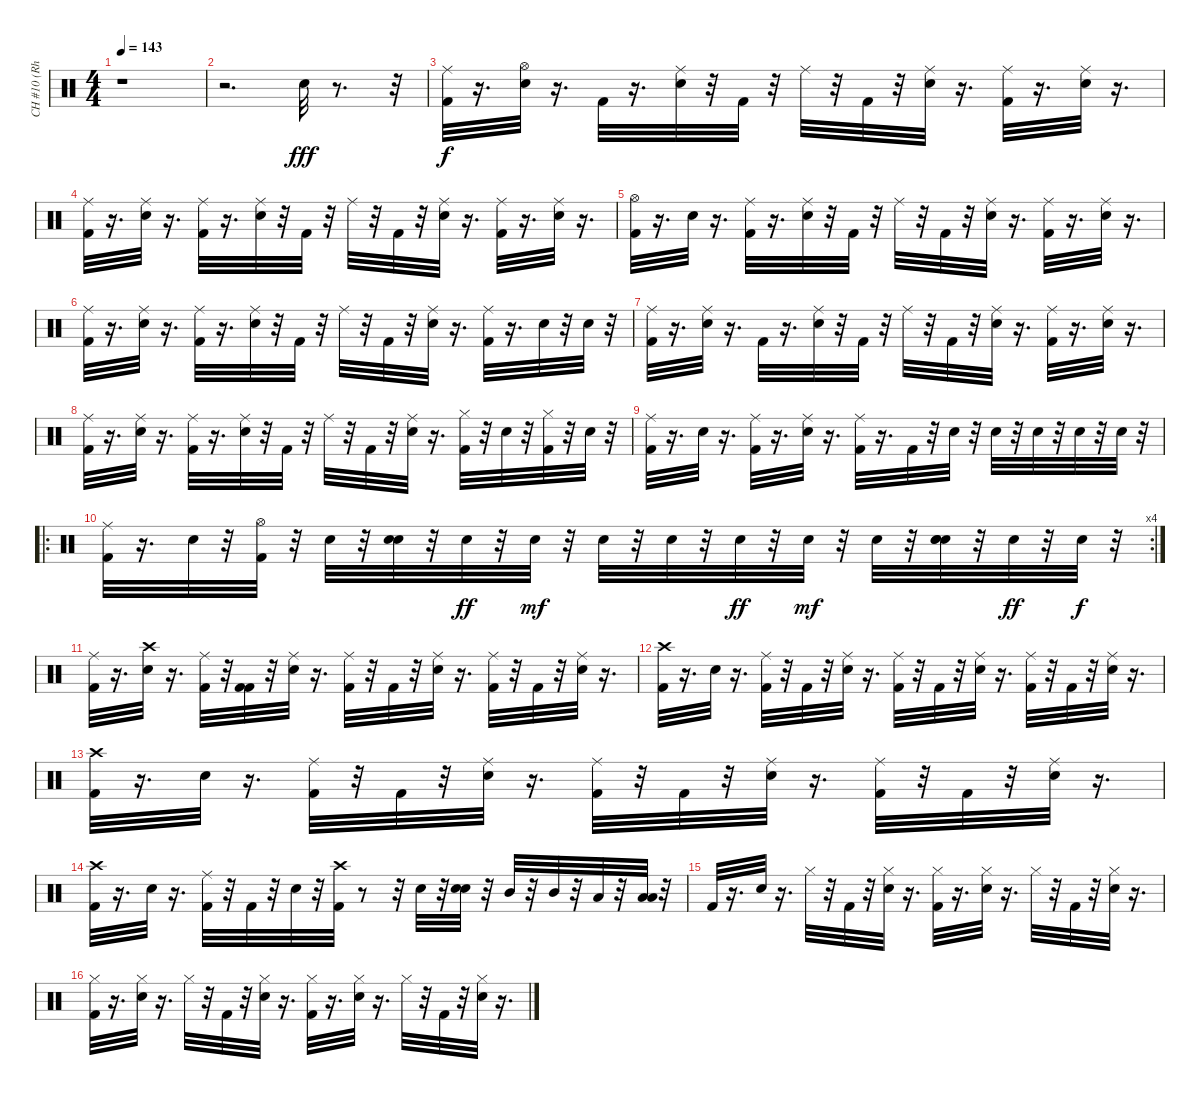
\track ("CH #10 (Rhythm channel)" "CH #10 (Rh") {instrument percussion}
\staff {score}
\articulation defaults
\ts (4 4)
\tempo 143
\clef neutral
\ks c
r.1{dy fff} |
r.2{d} "Electric Snare (hit)".32 r.8{d} r.32 |
("Kick (hit) 2" "Ride (middle)").32{dy f} r.16{d} ("Electric Snare (hit)" "Hi-Hat (open)").32 r.16{d} "Kick (hit) 2".32 r.16{d} ("Electric Snare (hit)" "Ride (middle)").32 r.32 "Kick (hit) 2".32 r.32 "Ride (middle)".32 r.32 "Kick (hit) 2".32 r.32 ("Electric Snare (hit)" "Ride (middle)").32 r.16{d} ("Kick (hit) 2" "Ride (middle)").32 r.16{d} ("Electric Snare (hit)" "Ride (middle)").32 r.16{d} |
("Kick (hit) 2" "Ride (middle)").32 r.16{d} ("Electric Snare (hit)" "Ride (middle)").32 r.16{d} ("Kick (hit) 2" "Ride (middle)").32 r.16{d} ("Electric Snare (hit)" "Ride (middle)").32 r.32 "Kick (hit) 2".32 r.32 "Ride (middle)".32 r.32 "Kick (hit) 2".32 r.32 ("Electric Snare (hit)" "Ride (middle)").32 r.16{d} ("Kick (hit) 2" "Ride (middle)").32 r.16{d} ("Electric Snare (hit)" "Ride (middle)").32 r.16{d} |
("Hi-Hat (open)" "Kick (hit) 2").32 r.16{d} "Electric Snare (hit)".32 r.16{d} ("Kick (hit) 2" "Ride (middle)").32 r.16{d} ("Electric Snare (hit)" "Ride (middle)").32 r.32 "Kick (hit) 2".32 r.32 "Ride (middle)".32 r.32 "Kick (hit) 2".32 r.32 ("Electric Snare (hit)" "Ride (middle)").32 r.16{d} ("Kick (hit) 2" "Ride (middle)").32 r.16{d} ("Electric Snare (hit)" "Ride (middle)").32 r.16{d} |
("Kick (hit) 2" "Ride (middle)").32 r.16{d} ("Electric Snare (hit)" "Ride (middle)").32 r.16{d} ("Kick (hit) 2" "Ride (middle)").32 r.16{d} ("Electric Snare (hit)" "Ride (middle)").32 r.32 "Kick (hit) 2".32 r.32 "Ride (middle)".32 r.32 "Kick (hit) 2".32 r.32 ("Electric Snare (hit)" "Ride (middle)").32 r.16{d} ("Kick (hit) 2" "Ride (middle)").32 r.16{d} "Electric Snare (hit)".32 r.32 "Electric Snare (hit)".32 r.32 |
("Kick (hit) 2" "Ride (middle)").32 r.16{d} ("Electric Snare (hit)" "Ride (middle)").32 r.16{d} "Kick (hit) 2".32 r.16{d} ("Electric Snare (hit)" "Ride (middle)").32 r.32 "Kick (hit) 2".32 r.32 "Ride (middle)".32 r.32 "Kick (hit) 2".32 r.32 ("Electric Snare (hit)" "Ride (middle)").32 r.16{d} ("Kick (hit) 2" "Ride (middle)").32 r.16{d} ("Electric Snare (hit)" "Ride (middle)").32 r.16{d} |
("Kick (hit) 2" "Ride (middle)").32 r.16{d} ("Electric Snare (hit)" "Ride (middle)").32 r.16{d} ("Kick (hit) 2" "Ride (middle)").32 r.16{d} ("Electric Snare (hit)" "Ride (middle)").32 r.32 "Kick (hit) 2".32 r.32 "Ride (middle)".32 r.32 "Kick (hit) 2".32 r.32 ("Electric Snare (hit)" "Ride (middle)").32 r.16{d} ("Kick (hit) 2" "Hi-Hat (closed)").32 r.32 "Electric Snare (hit)".32 r.32 ("Kick (hit) 2" "Hi-Hat (closed)").32 r.32 "Electric Snare (hit)".32 r.32 |
("Kick (hit) 2" "Ride (middle)").32 r.16{d} "Electric Snare (hit)".32 r.16{d} ("Kick (hit) 2" "Ride (middle)").32 r.16{d} ("Electric Snare (hit)" "Ride (middle)").32 r.16{d} ("Kick (hit) 2" "Ride (middle)").32 r.16{d} "Kick (hit) 2".32 r.32 "Electric Snare (hit)".32 r.32 "Electric Snare (hit)".32 r.32 "Electric Snare (hit)".32 r.32 "Electric Snare (hit)".32 r.32 "Electric Snare (hit)".32 r.32 |
\ro
\rc 4
("Kick (hit) 2" "Ride (middle)").32 r.16{d} "Electric Snare (hit)".32 r.32 ("Kick (hit) 2" "Hi-Hat (open)").32 r.32 "Electric Snare (hit)".32 r.32 ("Electric Snare (hit)" "Electric Snare (hit)").32 r.32 "Electric Snare (hit)".32{dy ff} r.32 "Electric Snare (hit)".32{dy mf} r.32 "Electric Snare (hit)".32 r.32 "Electric Snare (hit)".32 r.32 "Electric Snare (hit)".32{dy ff} r.32 "Electric Snare (hit)".32{dy mf} r.32 "Electric Snare (hit)".32 r.32 ("Electric Snare (hit)" "Electric Snare (hit)" "Electric Snare (hit)").32 r.32 "Electric Snare (hit)".32{dy ff} r.32 "Electric Snare (hit)".32{dy f} r.32 |
("Kick (hit) 2" "Ride (middle)").32 r.16{d} ("Electric Snare (hit)" "Crash high (hit)").32 r.16{d} ("Kick (hit) 2" "Ride (middle)").32 r.32 ("Kick (hit) 2" "Kick (hit) 2").32 r.32 ("Electric Snare (hit)" "Ride (middle)").32 r.16{d} ("Kick (hit) 2" "Ride (middle)").32 r.32 "Kick (hit) 2".32 r.32 ("Electric Snare (hit)" "Ride (middle)").32 r.16{d} ("Kick (hit) 2" "Ride (middle)").32 r.32 "Kick (hit) 2".32 r.32 ("Electric Snare (hit)" "Ride (middle)").32 r.16{d} |
("Kick (hit) 2" "Crash high (hit)").32 r.16{d} "Electric Snare (hit)".32 r.16{d} ("Kick (hit) 2" "Ride (middle)").32 r.32 "Kick (hit) 2".32 r.32 ("Electric Snare (hit)" "Ride (middle)").32 r.16{d} ("Kick (hit) 2" "Ride (middle)").32 r.32 "Kick (hit) 2".32 r.32 ("Electric Snare (hit)" "Ride (middle)").32 r.16{d} ("Kick (hit) 2" "Ride (middle)").32 r.32 "Kick (hit) 2".32 r.32 ("Electric Snare (hit)" "Ride (middle)").32 r.16{d} |
("Kick (hit) 2" "Crash high (hit)").32 r.16{d} "Electric Snare (hit)".32 r.16{d} ("Kick (hit) 2" "Ride (middle)").32 r.32 "Kick (hit) 2".32 r.32 ("Electric Snare (hit)" "Ride (middle)").32 r.16{d} ("Kick (hit) 2" "Ride (middle)").32 r.32 "Kick (hit) 2".32 r.32 ("Electric Snare (hit)" "Ride (middle)").32 r.16{d} ("Kick (hit) 2" "Ride (middle)").32 r.32 "Kick (hit) 2".32 r.32 ("Electric Snare (hit)" "Ride (middle)").32 r.16{d} |
("Kick (hit) 2" "Crash high (hit)").32 r.16{d} "Electric Snare (hit)".32 r.16{d} ("Kick (hit) 2" "Ride (middle)").32 r.32 "Kick (hit) 2".32 r.32 "Electric Snare (hit)".32 r.32 ("Kick (hit) 2" "Crash high (hit)").32 r.8 r.32 "Electric Snare (hit)".32 r.32 ("Electric Snare (hit)" "Electric Snare (hit)").32 r.32 "Mid Tom (hit)".32 r.32 "Mid Tom (hit)".32 r.32 "Low Tom (hit)".32 r.32 ("Low Tom (hit)" "Low Tom (hit)").32 r.32 |
"Kick (hit) 2".32 r.16{d} "Electric Snare (hit)".32 r.16{d} "Hi-Hat (closed)".32 r.32 "Kick (hit) 2".32 r.32 ("Hi-Hat (closed)" "Electric Snare (hit)").32 r.16{d} ("Kick (hit) 2" "Hi-Hat (closed)").32 r.16{d} ("Electric Snare (hit)" "Hi-Hat (closed)").32 r.16{d} "Hi-Hat (closed)".32 r.32 "Kick (hit) 2".32 r.32 ("Electric Snare (hit)" "Hi-Hat (closed)").32 r.16{d} |
("Kick (hit) 2" "Hi-Hat (closed)").32 r.16{d} ("Electric Snare (hit)" "Hi-Hat (closed)").32 r.16{d} "Hi-Hat (closed)".32 r.32 "Kick (hit) 2".32 r.32 ("Hi-Hat (closed)" "Electric Snare (hit)").32 r.16{d} ("Kick (hit) 2" "Hi-Hat (closed)").32 r.16{d} ("Electric Snare (hit)" "Hi-Hat (closed)").32 r.16{d} "Hi-Hat (closed)".32 r.32 "Kick (hit) 2".32 r.32 ("Electric Snare (hit)" "Hi-Hat (closed)").32 r.16{d}
